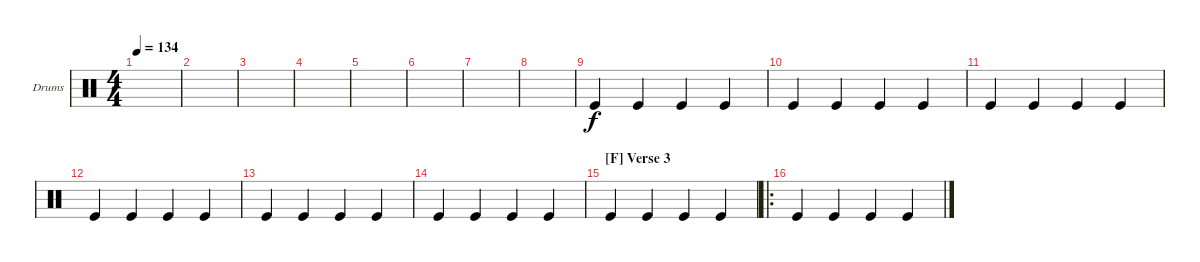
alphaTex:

\defaultSystemsLayout 4
\bracketExtendMode groupsimilarinstruments
\firstSystemTrackNameOrientation horizontal
\otherSystemsTrackNameOrientation horizontal
\track ("Bass Drum" "Drums") {instrument percussion}
\staff {score}
\articulation defaults
\ts (4 4)
\tempo 134
\clef neutral
\ks c
|
|
|
|
|
|
|
|
"Kick (hit)".4 "Kick (hit)".4 "Kick (hit)".4 "Kick (hit)".4 |
"Kick (hit)".4 "Kick (hit)".4 "Kick (hit)".4 "Kick (hit)".4 |
"Kick (hit)".4 "Kick (hit)".4 "Kick (hit)".4 "Kick (hit)".4 |
"Kick (hit)".4 "Kick (hit)".4 "Kick (hit)".4 "Kick (hit)".4 |
"Kick (hit)".4 "Kick (hit)".4 "Kick (hit)".4 "Kick (hit)".4 |
"Kick (hit)".4 "Kick (hit)".4 "Kick (hit)".4 "Kick (hit)".4 |
\section ("F" "Verse 3")
"Kick (hit)".4 "Kick (hit)".4 "Kick (hit)".4 "Kick (hit)".4 |
\ro "Kick (hit)".4 "Kick (hit)".4 "Kick (hit)".4 "Kick (hit)".4
